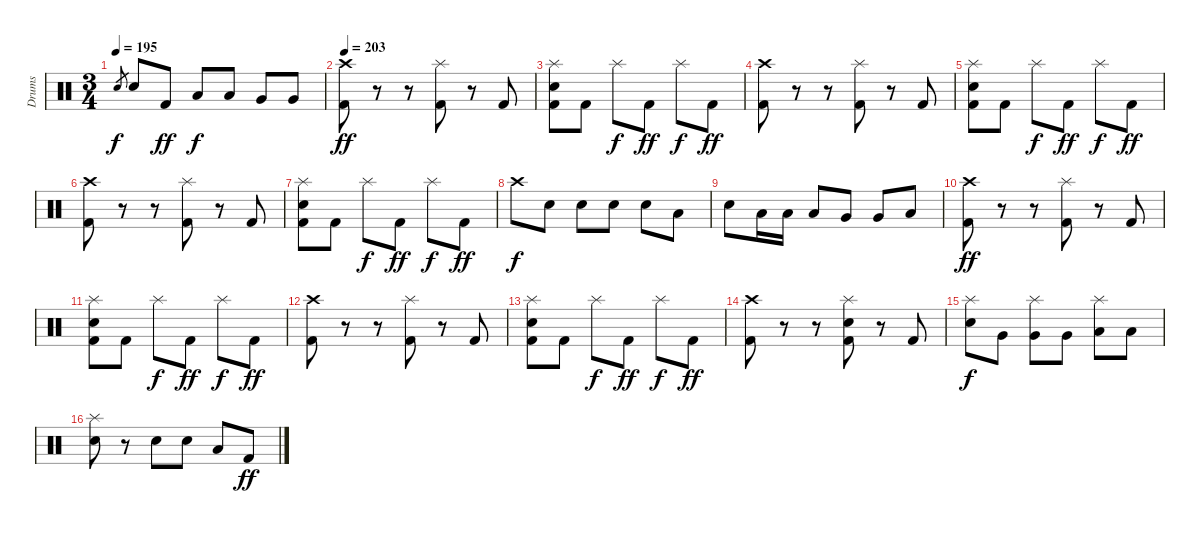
\track ("Drums" "Drums") {instrument percussion}
\staff {score}
\articulation defaults
\ts (3 4)
\tempo 195
\clef neutral
\ks c "Electric Snare (hit)".8{gr dy f} "Electric Snare (hit)".8 "Kick (hit) 2".8{dy ff} "Low Tom (hit)".8{dy f} "Low Tom (hit)".8 "Very Low Tom (hit)".8 "Very Low Tom (hit)".8
|
\tempo 203
("Crash high (hit)" "Kick (hit) 2").8{dy ff} r.8 r.8 ("Splash (hit)" "Kick (hit) 2").8 r.8 "Kick (hit) 2".8 |
("Splash (hit)" "Electric Snare (hit)" "Kick (hit) 2").8 "Kick (hit) 2".8 "Splash (hit)".8{dy f} "Kick (hit) 2".8{dy ff} "Splash (hit)".8{dy f} "Kick (hit) 2".8{dy ff} |
("Crash high (hit)" "Kick (hit) 2").8 r.8 r.8 ("Splash (hit)" "Kick (hit) 2").8 r.8 "Kick (hit) 2".8 |
("Splash (hit)" "Electric Snare (hit)" "Kick (hit) 2").8 "Kick (hit) 2".8 "Splash (hit)".8{dy f} "Kick (hit) 2".8{dy ff} "Splash (hit)".8{dy f} "Kick (hit) 2".8{dy ff} |
("Crash high (hit)" "Kick (hit) 2").8 r.8 r.8 ("Splash (hit)" "Kick (hit) 2").8 r.8 "Kick (hit) 2".8 |
("Splash (hit)" "Electric Snare (hit)" "Kick (hit) 2").8 "Kick (hit) 2".8 "Splash (hit)".8{dy f} "Kick (hit) 2".8{dy ff} "Splash (hit)".8{dy f} "Kick (hit) 2".8{dy ff} |
"Crash high (hit)".8{dy f} "Electric Snare (hit)".8 "Electric Snare (hit)".8 "Electric Snare (hit)".8 "Electric Snare (hit)".8 "Low Tom (hit)".8 |
"Electric Snare (hit)".8 "Low Tom (hit)".16 "Low Tom (hit)".16 "Low Tom (hit)".8 "Very Low Tom (hit)".8 "Very Low Tom (hit)".8 "Low Floor Tom (hit)".8 |
("Crash high (hit)" "Kick (hit) 2").8{dy ff} r.8 r.8 ("Splash (hit)" "Kick (hit) 2").8 r.8 "Kick (hit) 2".8 |
("Splash (hit)" "Electric Snare (hit)" "Kick (hit) 2").8 "Kick (hit) 2".8 "Splash (hit)".8{dy f} "Kick (hit) 2".8{dy ff} "Splash (hit)".8{dy f} "Kick (hit) 2".8{dy ff} |
("Crash high (hit)" "Kick (hit) 2").8 r.8 r.8 ("Splash (hit)" "Kick (hit) 2").8 r.8 "Kick (hit) 2".8 |
("Splash (hit)" "Electric Snare (hit)" "Kick (hit) 2").8 "Kick (hit) 2".8 "Splash (hit)".8{dy f} "Kick (hit) 2".8{dy ff} "Splash (hit)".8{dy f} "Kick (hit) 2".8{dy ff} |
("Crash high (hit)" "Kick (hit) 2").8 r.8 r.8 ("Splash (hit)" "Electric Snare (hit)" "Kick (hit) 2").8 r.8 "Kick (hit) 2".8 |
("Splash (hit)" "Electric Snare (hit)").8{dy f} "Very Low Tom (hit)".8 ("Splash (hit)" "Very Low Tom (hit)").8 "Very Low Tom (hit)".8 ("Splash (hit)" "Low Floor Tom (hit)").8 "Low Floor Tom (hit)".8 |
("Splash (hit)" "Electric Snare (hit)").8 r.8 "Electric Snare (hit)".8 "Electric Snare (hit)".8 "Low Floor Tom (hit)".8 "Kick (hit) 2".8{dy ff}
